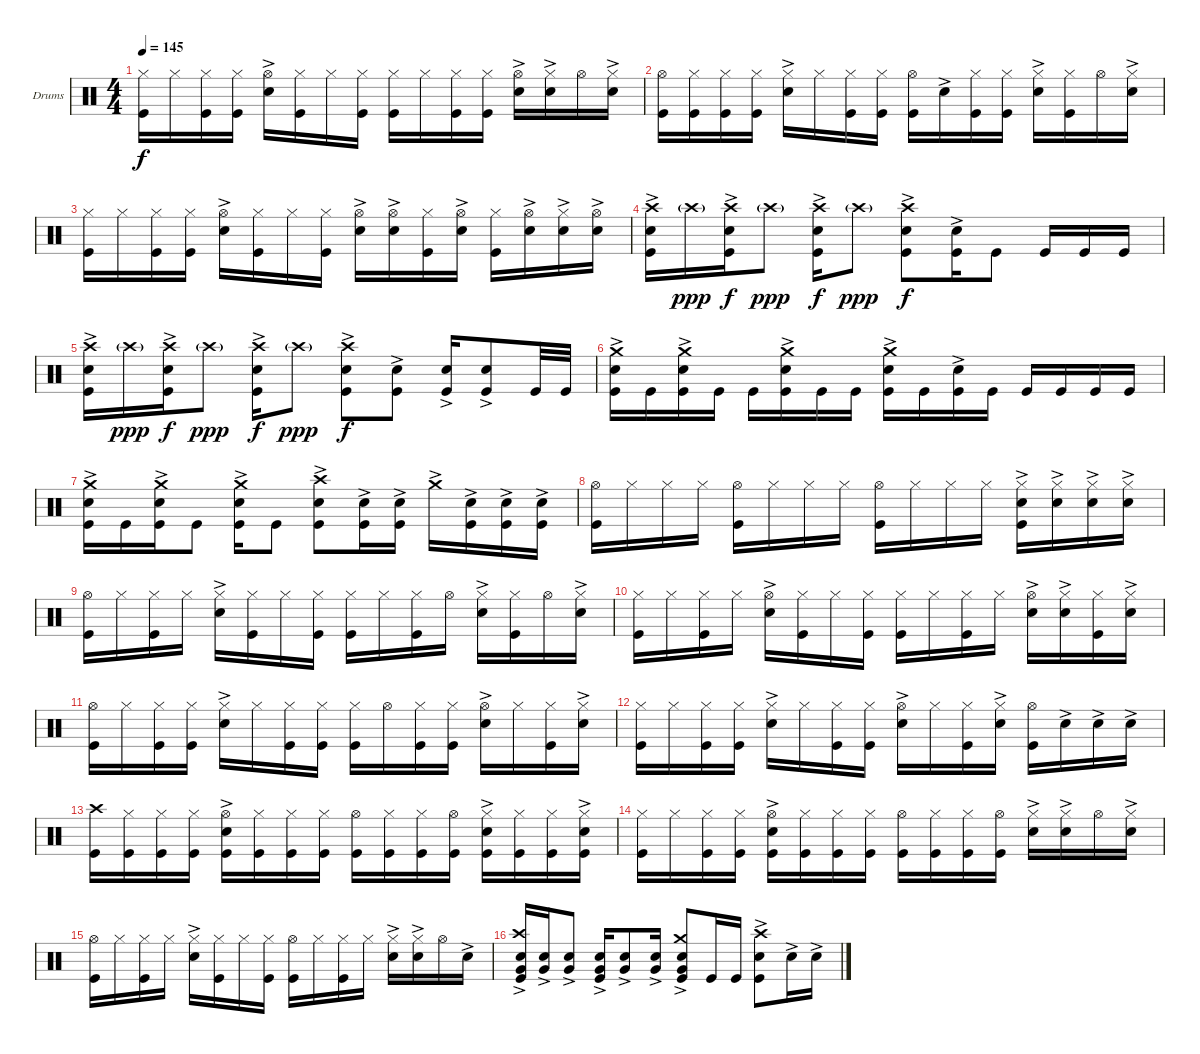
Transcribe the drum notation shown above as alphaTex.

\defaultSystemsLayout 4
\bracketExtendMode groupsimilarinstruments
\firstSystemTrackNameOrientation horizontal
\otherSystemsTrackNameOrientation horizontal
\track ("Drumkit" "Drums") {instrument percussion}
\staff {score}
\articulation defaults
\ts (4 4)
\tempo 145
\clef neutral
\ks c
("Kick (hit)" "Hi-Hat (closed)").16{dy f} "Hi-Hat (closed)".16 ("Kick (hit)" "Hi-Hat (closed)").16 ("Kick (hit)" "Hi-Hat (closed)").16 ("Snare (hit) 2"{ac} "Hi-Hat (open)").16 ("Kick (hit)" "Hi-Hat (closed)").16 "Hi-Hat (closed)".16 ("Kick (hit)" "Hi-Hat (closed)").16 ("Kick (hit)" "Hi-Hat (closed)").16 "Hi-Hat (closed)".16 ("Kick (hit)" "Hi-Hat (closed)").16 ("Kick (hit)" "Hi-Hat (closed)").16 ("Snare (hit) 2"{ac} "Hi-Hat (open)").16 ("Hi-Hat (closed)" "Snare (hit) 2"{ac}).16 "Hi-Hat (open)".16 ("Snare (hit) 2"{ac} "Hi-Hat (closed)").16 |
("Kick (hit)" "Hi-Hat (open)").16 ("Hi-Hat (closed)" "Kick (hit)").16 ("Kick (hit)" "Hi-Hat (closed)").16 ("Kick (hit)" "Hi-Hat (closed)").16 ("Snare (hit) 2"{ac} "Hi-Hat (closed)").16 "Hi-Hat (closed)".16 ("Hi-Hat (closed)" "Kick (hit)").16 ("Kick (hit)" "Hi-Hat (closed)").16 ("Kick (hit)" "Hi-Hat (open)").16 "Snare (hit) 2"{ac}.16 ("Kick (hit)" "Hi-Hat (closed)").16 ("Kick (hit)" "Hi-Hat (closed)").16 ("Snare (hit) 2"{ac} "Hi-Hat (closed)").16 ("Kick (hit)" "Hi-Hat (closed)").16 "Hi-Hat (open)".16 ("Snare (hit) 2"{ac} "Hi-Hat (closed)").16 |
("Kick (hit)" "Hi-Hat (closed)").16 "Hi-Hat (closed)".16 ("Kick (hit)" "Hi-Hat (closed)").16 ("Kick (hit)" "Hi-Hat (closed)").16 ("Snare (hit) 2"{ac} "Hi-Hat (open)").16 ("Kick (hit)" "Hi-Hat (closed)").16 "Hi-Hat (closed)".16 ("Kick (hit)" "Hi-Hat (closed)").16 ("Hi-Hat (open)" "Snare (hit) 2"{ac}).16 ("Snare (hit) 2"{ac} "Hi-Hat (open)").16 ("Kick (hit)" "Hi-Hat (closed)").16 ("Hi-Hat (open)" "Snare (hit) 2"{ac}).16 ("Hi-Hat (closed)" "Kick (hit)").16 ("Hi-Hat (open)" "Snare (hit) 2"{ac}).16 ("Snare (hit) 2"{ac} "Hi-Hat (closed)").16 ("Hi-Hat (open)" "Snare (hit) 2"{ac}).16 |
("Snare (hit) 2"{ac} "Crash high (hit)" "Kick (hit)").16 "Crash high (hit)"{g}.16{dy ppp} ("Snare (hit) 2"{ac} "Crash high (hit)" "Kick (hit)").16{dy f} "Crash high (hit)"{g}.8{dy ppp} ("Snare (hit) 2"{ac} "Crash high (hit)" "Kick (hit)").16{dy f} "Crash high (hit)"{g}.8{dy ppp} ("Snare (hit) 2"{ac} "Crash high (hit)" "Kick (hit)").8{dy f} ("Snare (hit) 2"{ac} "Kick (hit)").16 "Kick (hit)".8 "Kick (hit)".16 "Kick (hit)".16 "Kick (hit)".16 |
("Snare (hit) 2"{ac} "Crash high (hit)" "Kick (hit)").16 "Crash high (hit)"{g}.16{dy ppp} ("Snare (hit) 2"{ac} "Crash high (hit)" "Kick (hit)").16{dy f} "Crash high (hit)"{g}.8{dy ppp} ("Snare (hit) 2"{ac} "Crash high (hit)" "Kick (hit)").16{dy f} "Crash high (hit)"{g}.8{dy ppp} ("Snare (hit) 2"{ac} "Crash high (hit)" "Kick (hit)").8{dy f} ("Snare (hit) 2"{ac} "Kick (hit)").8 ("Snare (hit) 2"{ac} "Kick (hit)").16 ("Snare (hit) 2"{ac} "Kick (hit)").8 "Kick (hit)".32 "Kick (hit)".32 |
("Snare (hit) 2"{ac} "Kick (hit)" "Crash medium (hit)").16 "Kick (hit)".16 ("Snare (hit) 2"{ac} "Kick (hit)" "Crash medium (hit)").16 "Kick (hit)".16 "Kick (hit)".16 ("Snare (hit) 2"{ac} "Kick (hit)" "Crash medium (hit)").16 "Kick (hit)".16 "Kick (hit)".16 ("Snare (hit) 2"{ac} "Kick (hit)" "Crash medium (hit)").16 "Kick (hit)".16 ("Snare (hit) 2"{ac} "Kick (hit)").16 "Kick (hit)".16 "Kick (hit)".16 "Kick (hit)".16 "Kick (hit)".16 "Kick (hit)".16 |
("Snare (hit) 2"{ac} "Kick (hit)" "Crash medium (hit)").16 "Kick (hit)".16 ("Snare (hit) 2"{ac} "Kick (hit)" "Crash medium (hit)").16 "Kick (hit)".8 ("Snare (hit) 2"{ac} "Kick (hit)" "Crash medium (hit)").16 "Kick (hit)".8 ("Snare (hit) 2"{ac} "Kick (hit)" "Crash high (hit)").8 ("Snare (hit) 2"{ac} "Kick (hit)").16 ("Snare (hit) 2"{ac} "Kick (hit)").16 "Crash medium (hit)"{ac}.16 ("Snare (hit) 2"{ac} "Kick (hit)").16 ("Snare (hit) 2"{ac} "Kick (hit)").16 ("Snare (hit) 2"{ac} "Kick (hit)").16 |
("Hi-Hat (open)" "Kick (hit)").16 "Hi-Hat (closed)".16 "Hi-Hat (closed)".16 "Hi-Hat (closed)".16 ("Hi-Hat (open)" "Kick (hit)").16 "Hi-Hat (closed)".16 "Hi-Hat (closed)".16 "Hi-Hat (closed)".16 ("Hi-Hat (open)" "Kick (hit)").16 "Hi-Hat (closed)".16 "Hi-Hat (closed)".16 "Hi-Hat (closed)".16 ("Hi-Hat (closed)" "Kick (hit)" "Snare (hit) 2"{ac}).16 ("Hi-Hat (closed)" "Snare (hit) 2"{ac}).16 ("Hi-Hat (closed)" "Snare (hit) 2"{ac}).16 ("Hi-Hat (closed)" "Snare (hit) 2"{ac}).16 |
("Hi-Hat (open)" "Kick (hit)").16 "Hi-Hat (closed)".16 ("Hi-Hat (closed)" "Kick (hit)").16 "Hi-Hat (closed)".16 ("Hi-Hat (closed)" "Snare (hit) 2"{ac}).16 ("Hi-Hat (closed)" "Kick (hit)").16 "Hi-Hat (closed)".16 ("Hi-Hat (closed)" "Kick (hit)").16 ("Hi-Hat (closed)" "Kick (hit)").16 "Hi-Hat (closed)".16 ("Hi-Hat (closed)" "Kick (hit)").16 "Hi-Hat (open)".16 ("Hi-Hat (closed)" "Snare (hit) 2"{ac}).16 ("Hi-Hat (closed)" "Kick (hit)").16 "Hi-Hat (open)".16 ("Hi-Hat (closed)" "Snare (hit) 2"{ac}).16 |
("Hi-Hat (closed)" "Kick (hit)").16 "Hi-Hat (closed)".16 ("Hi-Hat (closed)" "Kick (hit)").16 "Hi-Hat (closed)".16 ("Hi-Hat (open)" "Snare (hit) 2"{ac}).16 ("Hi-Hat (closed)" "Kick (hit)").16 "Hi-Hat (closed)".16 ("Hi-Hat (closed)" "Kick (hit)").16 ("Hi-Hat (closed)" "Kick (hit)").16 "Hi-Hat (closed)".16 ("Hi-Hat (closed)" "Kick (hit)").16 "Hi-Hat (closed)".16 ("Hi-Hat (open)" "Snare (hit) 2"{ac}).16 ("Hi-Hat (closed)" "Snare (hit) 2"{ac}).16 ("Hi-Hat (closed)" "Kick (hit)").16 ("Hi-Hat (closed)" "Snare (hit) 2"{ac}).16 |
("Hi-Hat (open)" "Kick (hit)").16 "Hi-Hat (closed)".16 ("Hi-Hat (closed)" "Kick (hit)").16 ("Hi-Hat (closed)" "Kick (hit)").16 ("Hi-Hat (closed)" "Snare (hit) 2"{ac}).16 "Hi-Hat (closed)".16 ("Hi-Hat (closed)" "Kick (hit)").16 ("Hi-Hat (closed)" "Kick (hit)").16 ("Hi-Hat (closed)" "Kick (hit)").16 "Hi-Hat (open)".16 ("Hi-Hat (closed)" "Kick (hit)").16 ("Hi-Hat (closed)" "Kick (hit)").16 ("Hi-Hat (open)" "Snare (hit) 2"{ac}).16 "Hi-Hat (closed)".16 ("Hi-Hat (closed)" "Kick (hit)").16 ("Hi-Hat (closed)" "Snare (hit) 2"{ac}).16 |
("Hi-Hat (closed)" "Kick (hit)").16 "Hi-Hat (closed)".16 ("Hi-Hat (closed)" "Kick (hit)").16 ("Hi-Hat (closed)" "Kick (hit)").16 ("Hi-Hat (closed)" "Snare (hit) 2"{ac}).16 "Hi-Hat (closed)".16 ("Hi-Hat (closed)" "Kick (hit)").16 ("Hi-Hat (closed)" "Kick (hit)").16 ("Hi-Hat (open)" "Snare (hit) 2"{ac}).16 "Hi-Hat (closed)".16 ("Hi-Hat (closed)" "Kick (hit)").16 ("Hi-Hat (closed)" "Snare (hit) 2"{ac}).16 ("Hi-Hat (open)" "Kick (hit)").16 "Snare (hit) 2"{ac}.16 "Snare (hit) 2"{ac}.16 "Snare (hit) 2"{ac}.16 |
("Kick (hit)" "Crash high (hit)").16 ("Hi-Hat (closed)" "Kick (hit)").16 ("Hi-Hat (closed)" "Kick (hit)").16 ("Hi-Hat (closed)" "Kick (hit)").16 ("Hi-Hat (open)" "Snare (hit) 2"{ac} "Kick (hit)").16 ("Hi-Hat (closed)" "Kick (hit)").16 ("Hi-Hat (closed)" "Kick (hit)").16 ("Hi-Hat (closed)" "Kick (hit)").16 ("Hi-Hat (open)" "Kick (hit)").16 ("Hi-Hat (closed)" "Kick (hit)").16 ("Hi-Hat (closed)" "Kick (hit)").16 ("Hi-Hat (open)" "Kick (hit)").16 ("Hi-Hat (closed)" "Snare (hit) 2"{ac} "Kick (hit)").16 ("Hi-Hat (closed)" "Kick (hit)").16 ("Hi-Hat (closed)" "Kick (hit)").16 ("Hi-Hat (closed)" "Snare (hit) 2"{ac} "Kick (hit)").16 |
("Hi-Hat (closed)" "Kick (hit)").16 "Hi-Hat (closed)".16 ("Hi-Hat (closed)" "Kick (hit)").16 ("Hi-Hat (closed)" "Kick (hit)").16 ("Hi-Hat (open)" "Snare (hit) 2"{ac} "Kick (hit)").16 ("Hi-Hat (closed)" "Kick (hit)").16 ("Hi-Hat (closed)" "Kick (hit)").16 ("Hi-Hat (closed)" "Kick (hit)").16 ("Hi-Hat (open)" "Kick (hit)").16 ("Hi-Hat (closed)" "Kick (hit)").16 ("Hi-Hat (closed)" "Kick (hit)").16 ("Hi-Hat (open)" "Kick (hit)").16 ("Hi-Hat (closed)" "Snare (hit) 2"{ac}).16 ("Hi-Hat (closed)" "Snare (hit) 2"{ac}).16 "Hi-Hat (open)".16 ("Hi-Hat (closed)" "Snare (hit) 2"{ac}).16 |
("Hi-Hat (open)" "Kick (hit)").16 "Hi-Hat (closed)".16 ("Hi-Hat (closed)" "Kick (hit)").16 "Hi-Hat (closed)".16 ("Hi-Hat (closed)" "Snare (hit) 2"{ac}).16 ("Hi-Hat (closed)" "Kick (hit)").16 "Hi-Hat (closed)".16 ("Hi-Hat (closed)" "Kick (hit)").16 ("Hi-Hat (open)" "Kick (hit)").16 "Hi-Hat (closed)".16 ("Hi-Hat (closed)" "Kick (hit)").16 "Hi-Hat (closed)".16 ("Hi-Hat (closed)" "Snare (hit) 2"{ac}).16 ("Hi-Hat (closed)" "Snare (hit) 2"{ac}).16 "Hi-Hat (open)".16 "Snare (hit) 2"{ac}.16 |
("Snare (hit) 2"{ac} "Very Low Tom (hit)"{ac} "Crash high (hit)" "Kick (hit)").16 ("Snare (hit) 2"{ac} "Very Low Tom (hit)"{ac}).16 ("Snare (hit) 2"{ac} "Very Low Tom (hit)"{ac}).8 ("Snare (hit) 2"{ac} "Very Low Tom (hit)"{ac} "Kick (hit)").16 ("Snare (hit) 2"{ac} "Very Low Tom (hit)"{ac}).8 ("Snare (hit) 2"{ac} "Very Low Tom (hit)"{ac}).16 ("Snare (hit) 2"{ac} "Very Low Tom (hit)"{ac} "Crash medium (hit)" "Kick (hit)").8 "Kick (hit)".16 "Kick (hit)".16 ("Snare (hit) 2"{ac} "Crash high (hit)" "Kick (hit)").8 "Snare (hit) 2"{ac}.16 "Snare (hit) 2"{ac}.16
